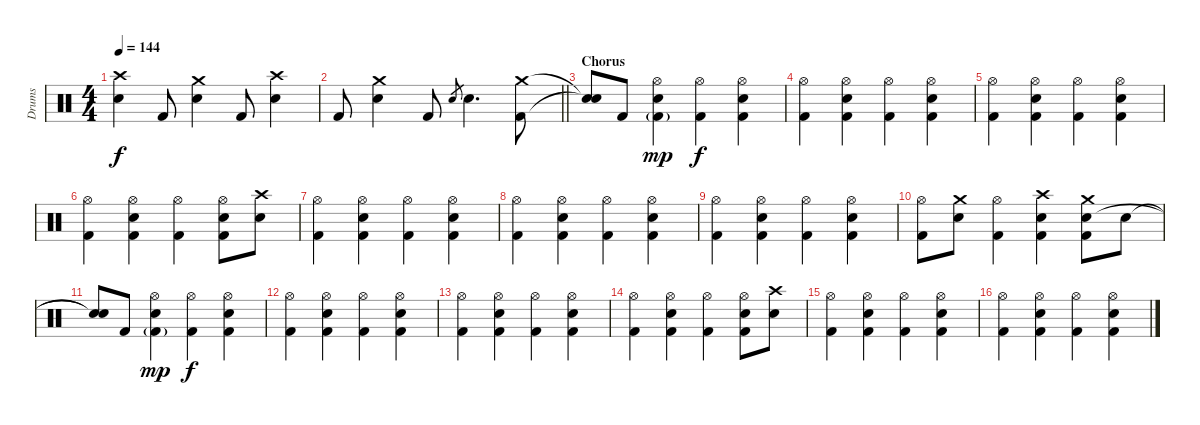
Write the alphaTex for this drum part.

\track ("Drums" "Drums") {instrument percussion}
\staff {score}
\articulation defaults
\ts (4 4)
\tempo 144
\clef neutral
\ks c
("Crash high (hit)" "Electric Snare (hit)").4{dy f} "Kick (hit) 2".8 ("Crash medium (hit)" "Electric Snare (hit)").4 "Kick (hit) 2".8 ("Crash high (hit)" "Electric Snare (hit)").4 |
\barLineRight lightlight "Kick (hit) 2".8
("Crash medium (hit)" "Electric Snare (hit)").4 "Kick (hit) 2".8 "Electric Snare (hit)".8{gr} "Electric Snare (hit)".4{d} ("Crash medium (hit)" "Kick (hit) 2").8 |
\section ("" "Chorus")
("Snare (hit)"{t} "Snare (hit)"{t}).8 "Kick (hit) 2".8 ("Hi-Hat (open)" "Electric Snare (hit)" "Kick (hit) 2"{g}).4{dy mp} ("Hi-Hat (open)" "Kick (hit) 2").4{dy f} ("Hi-Hat (open)" "Electric Snare (hit)" "Kick (hit) 2").4 |
("Hi-Hat (open)" "Kick (hit) 2").4 ("Hi-Hat (open)" "Electric Snare (hit)" "Kick (hit) 2").4 ("Hi-Hat (open)" "Kick (hit) 2").4 ("Hi-Hat (open)" "Electric Snare (hit)" "Kick (hit) 2").4 |
("Hi-Hat (open)" "Kick (hit) 2").4 ("Hi-Hat (open)" "Electric Snare (hit)" "Kick (hit) 2").4 ("Hi-Hat (open)" "Kick (hit) 2").4 ("Hi-Hat (open)" "Electric Snare (hit)" "Kick (hit) 2").4 |
("Hi-Hat (open)" "Kick (hit) 2").4 ("Hi-Hat (open)" "Electric Snare (hit)" "Kick (hit) 2").4 ("Hi-Hat (open)" "Kick (hit) 2").4 ("Hi-Hat (open)" "Electric Snare (hit)" "Kick (hit) 2").8 ("Crash high (hit)" "Electric Snare (hit)").8 |
("Hi-Hat (open)" "Kick (hit) 2").4 ("Hi-Hat (open)" "Electric Snare (hit)" "Kick (hit) 2").4 ("Hi-Hat (open)" "Kick (hit) 2").4 ("Hi-Hat (open)" "Electric Snare (hit)" "Kick (hit) 2").4 |
("Hi-Hat (open)" "Kick (hit) 2").4 ("Hi-Hat (open)" "Electric Snare (hit)" "Kick (hit) 2").4 ("Hi-Hat (open)" "Kick (hit) 2").4 ("Hi-Hat (open)" "Electric Snare (hit)" "Kick (hit) 2").4 |
("Hi-Hat (open)" "Kick (hit) 2").4 ("Hi-Hat (open)" "Electric Snare (hit)" "Kick (hit) 2").4 ("Hi-Hat (open)" "Kick (hit) 2").4 ("Hi-Hat (open)" "Electric Snare (hit)" "Kick (hit) 2").4 |
("Hi-Hat (open)" "Kick (hit) 2").8 ("Crash medium (hit)" "Electric Snare (hit)").8 ("Hi-Hat (open)" "Kick (hit) 2").4 ("Crash high (hit)" "Electric Snare (hit)" "Kick (hit) 2").4 ("Crash medium (hit)" "Electric Snare (hit)" "Kick (hit) 2").8 "Electric Snare (hit)".8 |
("Snare (hit)"{t} "Snare (hit)"{t}).8 "Kick (hit) 2".8 ("Hi-Hat (open)" "Electric Snare (hit)" "Kick (hit) 2"{g}).4{dy mp} ("Hi-Hat (open)" "Kick (hit) 2").4{dy f} ("Hi-Hat (open)" "Electric Snare (hit)" "Kick (hit) 2").4 |
("Hi-Hat (open)" "Kick (hit) 2").4 ("Hi-Hat (open)" "Electric Snare (hit)" "Kick (hit) 2").4 ("Hi-Hat (open)" "Kick (hit) 2").4 ("Hi-Hat (open)" "Electric Snare (hit)" "Kick (hit) 2").4 |
("Hi-Hat (open)" "Kick (hit) 2").4 ("Hi-Hat (open)" "Electric Snare (hit)" "Kick (hit) 2").4 ("Hi-Hat (open)" "Kick (hit) 2").4 ("Hi-Hat (open)" "Electric Snare (hit)" "Kick (hit) 2").4 |
("Hi-Hat (open)" "Kick (hit) 2").4 ("Hi-Hat (open)" "Electric Snare (hit)" "Kick (hit) 2").4 ("Hi-Hat (open)" "Kick (hit) 2").4 ("Hi-Hat (open)" "Electric Snare (hit)" "Kick (hit) 2").8 ("Crash high (hit)" "Electric Snare (hit)").8 |
("Hi-Hat (open)" "Kick (hit) 2").4 ("Hi-Hat (open)" "Electric Snare (hit)" "Kick (hit) 2").4 ("Hi-Hat (open)" "Kick (hit) 2").4 ("Hi-Hat (open)" "Electric Snare (hit)" "Kick (hit) 2").4 |
("Hi-Hat (open)" "Kick (hit) 2").4 ("Hi-Hat (open)" "Electric Snare (hit)" "Kick (hit) 2").4 ("Hi-Hat (open)" "Kick (hit) 2").4 ("Hi-Hat (open)" "Electric Snare (hit)" "Kick (hit) 2").4
